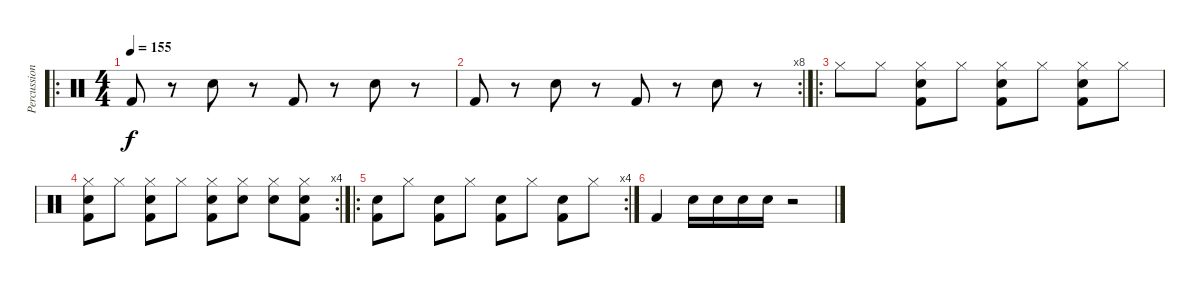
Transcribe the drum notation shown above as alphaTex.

\track ("Percussion" "Percussion") {instrument percussion}
\staff {score}
\articulation defaults
\ro
\ts (4 4)
\tempo 155
\clef neutral
\ks c "Kick (hit) 2".8{dy f}
r.8 "Snare (hit) 2".8 r.8 "Kick (hit) 2".8 r.8 "Snare (hit) 2".8 r.8 |
\rc 8 "Kick (hit) 2".8
r.8 "Snare (hit) 2".8 r.8 "Kick (hit) 2".8 r.8 "Snare (hit) 2".8 r.8 |
\ro "Hi-Hat (closed)".8 "Hi-Hat (closed)".8
("Hi-Hat (closed)" "Snare (hit) 2" "Kick (hit) 2").8 "Hi-Hat (closed)".8 ("Hi-Hat (closed)" "Snare (hit) 2" "Kick (hit) 2").8 "Hi-Hat (closed)".8 ("Hi-Hat (closed)" "Snare (hit) 2" "Kick (hit) 2").8 "Hi-Hat (closed)".8 |
\rc 4
("Hi-Hat (closed)" "Snare (hit) 2" "Kick (hit) 2").8 "Hi-Hat (closed)".8 ("Hi-Hat (closed)" "Snare (hit) 2" "Kick (hit) 2").8 "Hi-Hat (closed)".8 ("Hi-Hat (closed)" "Snare (hit) 2" "Kick (hit) 2").8 ("Hi-Hat (closed)" "Snare (hit) 2").8 ("Hi-Hat (closed)" "Snare (hit) 2").8 ("Hi-Hat (closed)" "Snare (hit) 2" "Kick (hit) 2").8 |
\ro
\rc 4
("Snare (hit) 2" "Kick (hit) 2").8 "Hi-Hat (closed)".8 ("Snare (hit) 2" "Kick (hit) 2").8 "Hi-Hat (closed)".8 ("Snare (hit) 2" "Kick (hit) 2").8 "Hi-Hat (closed)".8 ("Snare (hit) 2" "Kick (hit) 2").8 "Hi-Hat (closed)".8 |
"Kick (hit) 2".4 "Snare (hit) 2".16 "Snare (hit) 2".16 "Snare (hit) 2".16 "Snare (hit) 2".16 r.2
